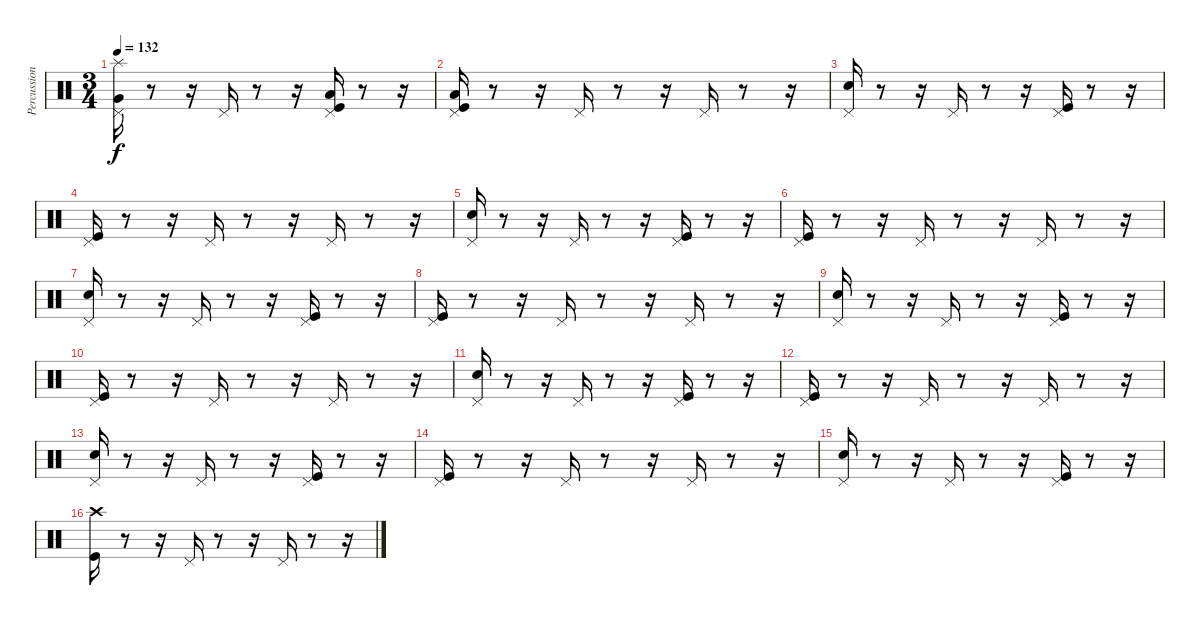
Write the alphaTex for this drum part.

\track ("Percussion" "Percussion") {instrument percussion}
\staff {score}
\articulation defaults
\ts (3 4)
\tempo 132
\clef neutral
\ks c
("Pedal Hi-Hat (hit)" "Very Low Tom (hit)" "Splash (hit)").16{dy f} r.8 r.16 "Pedal Hi-Hat (hit)".16 r.8 r.16 ("Pedal Hi-Hat (hit)" "Low Floor Tom (hit)" "Kick (hit)").16 r.8 r.16 |
("Pedal Hi-Hat (hit)" "Low Floor Tom (hit)" "Kick (hit)").16 r.8 r.16 "Pedal Hi-Hat (hit)".16 r.8 r.16 "Pedal Hi-Hat (hit)".16 r.8 r.16 |
("Pedal Hi-Hat (hit)" "Snare (hit) 2").16 r.8 r.16 "Pedal Hi-Hat (hit)".16 r.8 r.16 ("Pedal Hi-Hat (hit)" "Kick (hit)").16 r.8 r.16 |
("Pedal Hi-Hat (hit)" "Kick (hit)").16 r.8 r.16 "Pedal Hi-Hat (hit)".16 r.8 r.16 "Pedal Hi-Hat (hit)".16 r.8 r.16 |
("Pedal Hi-Hat (hit)" "Snare (hit) 2").16 r.8 r.16 "Pedal Hi-Hat (hit)".16 r.8 r.16 ("Pedal Hi-Hat (hit)" "Kick (hit)").16 r.8 r.16 |
("Pedal Hi-Hat (hit)" "Kick (hit)").16 r.8 r.16 "Pedal Hi-Hat (hit)".16 r.8 r.16 "Pedal Hi-Hat (hit)".16 r.8 r.16 |
("Pedal Hi-Hat (hit)" "Snare (hit) 2").16 r.8 r.16 "Pedal Hi-Hat (hit)".16 r.8 r.16 ("Pedal Hi-Hat (hit)" "Kick (hit)").16 r.8 r.16 |
("Pedal Hi-Hat (hit)" "Kick (hit)").16 r.8 r.16 "Pedal Hi-Hat (hit)".16 r.8 r.16 "Pedal Hi-Hat (hit)".16 r.8 r.16 |
("Pedal Hi-Hat (hit)" "Snare (hit) 2").16 r.8 r.16 "Pedal Hi-Hat (hit)".16 r.8 r.16 ("Pedal Hi-Hat (hit)" "Kick (hit)").16 r.8 r.16 |
("Pedal Hi-Hat (hit)" "Kick (hit)").16 r.8 r.16 "Pedal Hi-Hat (hit)".16 r.8 r.16 "Pedal Hi-Hat (hit)".16 r.8 r.16 |
("Pedal Hi-Hat (hit)" "Snare (hit) 2").16 r.8 r.16 "Pedal Hi-Hat (hit)".16 r.8 r.16 ("Pedal Hi-Hat (hit)" "Kick (hit)").16 r.8 r.16 |
("Pedal Hi-Hat (hit)" "Kick (hit)").16 r.8 r.16 "Pedal Hi-Hat (hit)".16 r.8 r.16 "Pedal Hi-Hat (hit)".16 r.8 r.16 |
("Pedal Hi-Hat (hit)" "Snare (hit) 2").16 r.8 r.16 "Pedal Hi-Hat (hit)".16 r.8 r.16 ("Pedal Hi-Hat (hit)" "Kick (hit)").16 r.8 r.16 |
("Pedal Hi-Hat (hit)" "Kick (hit)").16 r.8 r.16 "Pedal Hi-Hat (hit)".16 r.8 r.16 "Pedal Hi-Hat (hit)".16 r.8 r.16 |
("Pedal Hi-Hat (hit)" "Snare (hit) 2").16 r.8 r.16 "Pedal Hi-Hat (hit)".16 r.8 r.16 ("Pedal Hi-Hat (hit)" "Kick (hit)").16 r.8 r.16 |
("Crash high (hit)" "Kick (hit)").16 r.8 r.16 "Pedal Hi-Hat (hit)".16 r.8 r.16 "Pedal Hi-Hat (hit)".16 r.8 r.16
